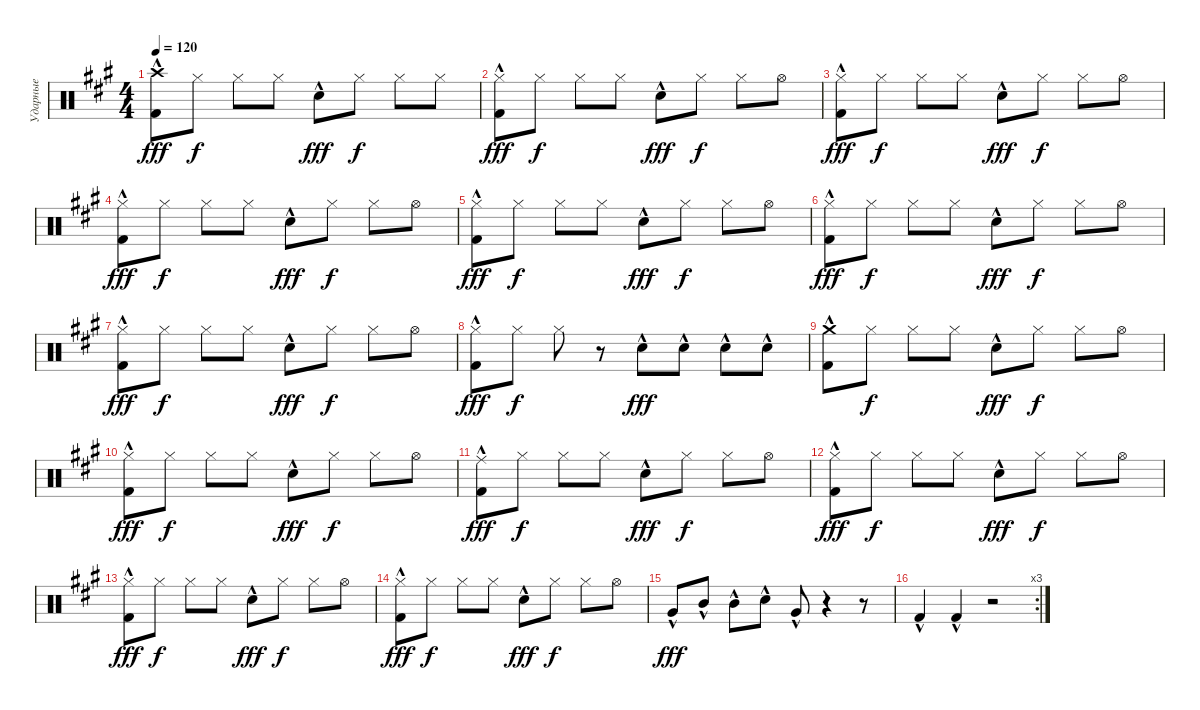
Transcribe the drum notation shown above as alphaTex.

\track ("Ударные" "Ударные") {instrument percussion}
\staff {score}
\articulation defaults
\ts (4 4)
\tempo 120
\clef neutral
\ks a
("Crash high (hit)"{hac} "Kick (hit) 2"{hac}).8{dy fff} "Hi-Hat (closed)".8{dy f} "Hi-Hat (closed)".8 "Hi-Hat (closed)".8 "Snare (hit) 2"{hac}.8{dy fff} "Hi-Hat (closed)".8{dy f} "Hi-Hat (closed)".8 "Hi-Hat (closed)".8 |
("Hi-Hat (closed)"{hac} "Kick (hit) 2"{hac}).8{dy fff} "Hi-Hat (closed)".8{dy f} "Hi-Hat (closed)".8 "Hi-Hat (closed)".8 "Snare (hit) 2"{hac}.8{dy fff} "Hi-Hat (closed)".8{dy f} "Hi-Hat (closed)".8 "Hi-Hat (open)".8 |
("Hi-Hat (closed)"{hac} "Kick (hit) 2"{hac}).8{dy fff} "Hi-Hat (closed)".8{dy f} "Hi-Hat (closed)".8 "Hi-Hat (closed)".8 "Snare (hit) 2"{hac}.8{dy fff} "Hi-Hat (closed)".8{dy f} "Hi-Hat (closed)".8 "Hi-Hat (open)".8 |
("Hi-Hat (closed)"{hac} "Kick (hit) 2"{hac}).8{dy fff} "Hi-Hat (closed)".8{dy f} "Hi-Hat (closed)".8 "Hi-Hat (closed)".8 "Snare (hit) 2"{hac}.8{dy fff} "Hi-Hat (closed)".8{dy f} "Hi-Hat (closed)".8 "Hi-Hat (open)".8 |
("Hi-Hat (closed)"{hac} "Kick (hit) 2"{hac}).8{dy fff} "Hi-Hat (closed)".8{dy f} "Hi-Hat (closed)".8 "Hi-Hat (closed)".8 "Snare (hit) 2"{hac}.8{dy fff} "Hi-Hat (closed)".8{dy f} "Hi-Hat (closed)".8 "Hi-Hat (open)".8 |
("Hi-Hat (closed)"{hac} "Kick (hit) 2"{hac}).8{dy fff} "Hi-Hat (closed)".8{dy f} "Hi-Hat (closed)".8 "Hi-Hat (closed)".8 "Snare (hit) 2"{hac}.8{dy fff} "Hi-Hat (closed)".8{dy f} "Hi-Hat (closed)".8 "Hi-Hat (open)".8 |
("Hi-Hat (closed)"{hac} "Kick (hit) 2"{hac}).8{dy fff} "Hi-Hat (closed)".8{dy f} "Hi-Hat (closed)".8 "Hi-Hat (closed)".8 "Snare (hit) 2"{hac}.8{dy fff} "Hi-Hat (closed)".8{dy f} "Hi-Hat (closed)".8 "Hi-Hat (open)".8 |
("Hi-Hat (closed)"{hac} "Kick (hit) 2"{hac}).8{dy fff} "Hi-Hat (closed)".8{dy f} "Hi-Hat (closed)".8 r.8 "Snare (hit) 2"{hac}.8{dy fff} "Snare (hit) 2"{hac}.8 "Snare (hit) 2"{hac}.8 "Snare (hit) 2"{hac}.8 |
("Crash medium (hit)"{hac} "Kick (hit) 2"{hac}).8 "Hi-Hat (closed)".8{dy f} "Hi-Hat (closed)".8 "Hi-Hat (closed)".8 "Snare (hit) 2"{hac}.8{dy fff} "Hi-Hat (closed)".8{dy f} "Hi-Hat (closed)".8 "Hi-Hat (open)".8 |
("Hi-Hat (closed)"{hac} "Kick (hit) 2"{hac}).8{dy fff} "Hi-Hat (closed)".8{dy f} "Hi-Hat (closed)".8 "Hi-Hat (closed)".8 "Snare (hit) 2"{hac}.8{dy fff} "Hi-Hat (closed)".8{dy f} "Hi-Hat (closed)".8 "Hi-Hat (open)".8 |
("Ride (middle)"{hac} "Kick (hit) 2"{hac}).8{dy fff} "Hi-Hat (closed)".8{dy f} "Hi-Hat (closed)".8 "Hi-Hat (closed)".8 "Snare (hit) 2"{hac}.8{dy fff} "Hi-Hat (closed)".8{dy f} "Hi-Hat (closed)".8 "Hi-Hat (open)".8 |
("Hi-Hat (closed)"{hac} "Kick (hit) 2"{hac}).8{dy fff} "Hi-Hat (closed)".8{dy f} "Hi-Hat (closed)".8 "Hi-Hat (closed)".8 "Snare (hit) 2"{hac}.8{dy fff} "Hi-Hat (closed)".8{dy f} "Hi-Hat (closed)".8 "Hi-Hat (open)".8 |
("Hi-Hat (closed)"{hac} "Kick (hit) 2"{hac}).8{dy fff} "Hi-Hat (closed)".8{dy f} "Hi-Hat (closed)".8 "Hi-Hat (closed)".8 "Snare (hit) 2"{hac}.8{dy fff} "Hi-Hat (closed)".8{dy f} "Hi-Hat (closed)".8 "Hi-Hat (open)".8 |
("Hi-Hat (closed)"{hac} "Kick (hit) 2"{hac}).8{dy fff} "Hi-Hat (closed)".8{dy f} "Hi-Hat (closed)".8 "Hi-Hat (closed)".8 "Snare (hit) 2"{hac}.8{dy fff} "Hi-Hat (closed)".8{dy f} "Hi-Hat (closed)".8 "Hi-Hat (open)".8 |
"Very Low Tom (hit)"{hac}.8{dy fff} "Mid Tom (hit)"{hac}.8 "Mid Tom (hit)"{hac}.8 "Snare (hit) 2"{hac}.8 "Very Low Tom (hit)"{hac}.8 r.4 r.8 |
\rc 3 "Kick (hit) 2"{hac}.4 "Kick (hit) 2"{hac}.4
r.2
